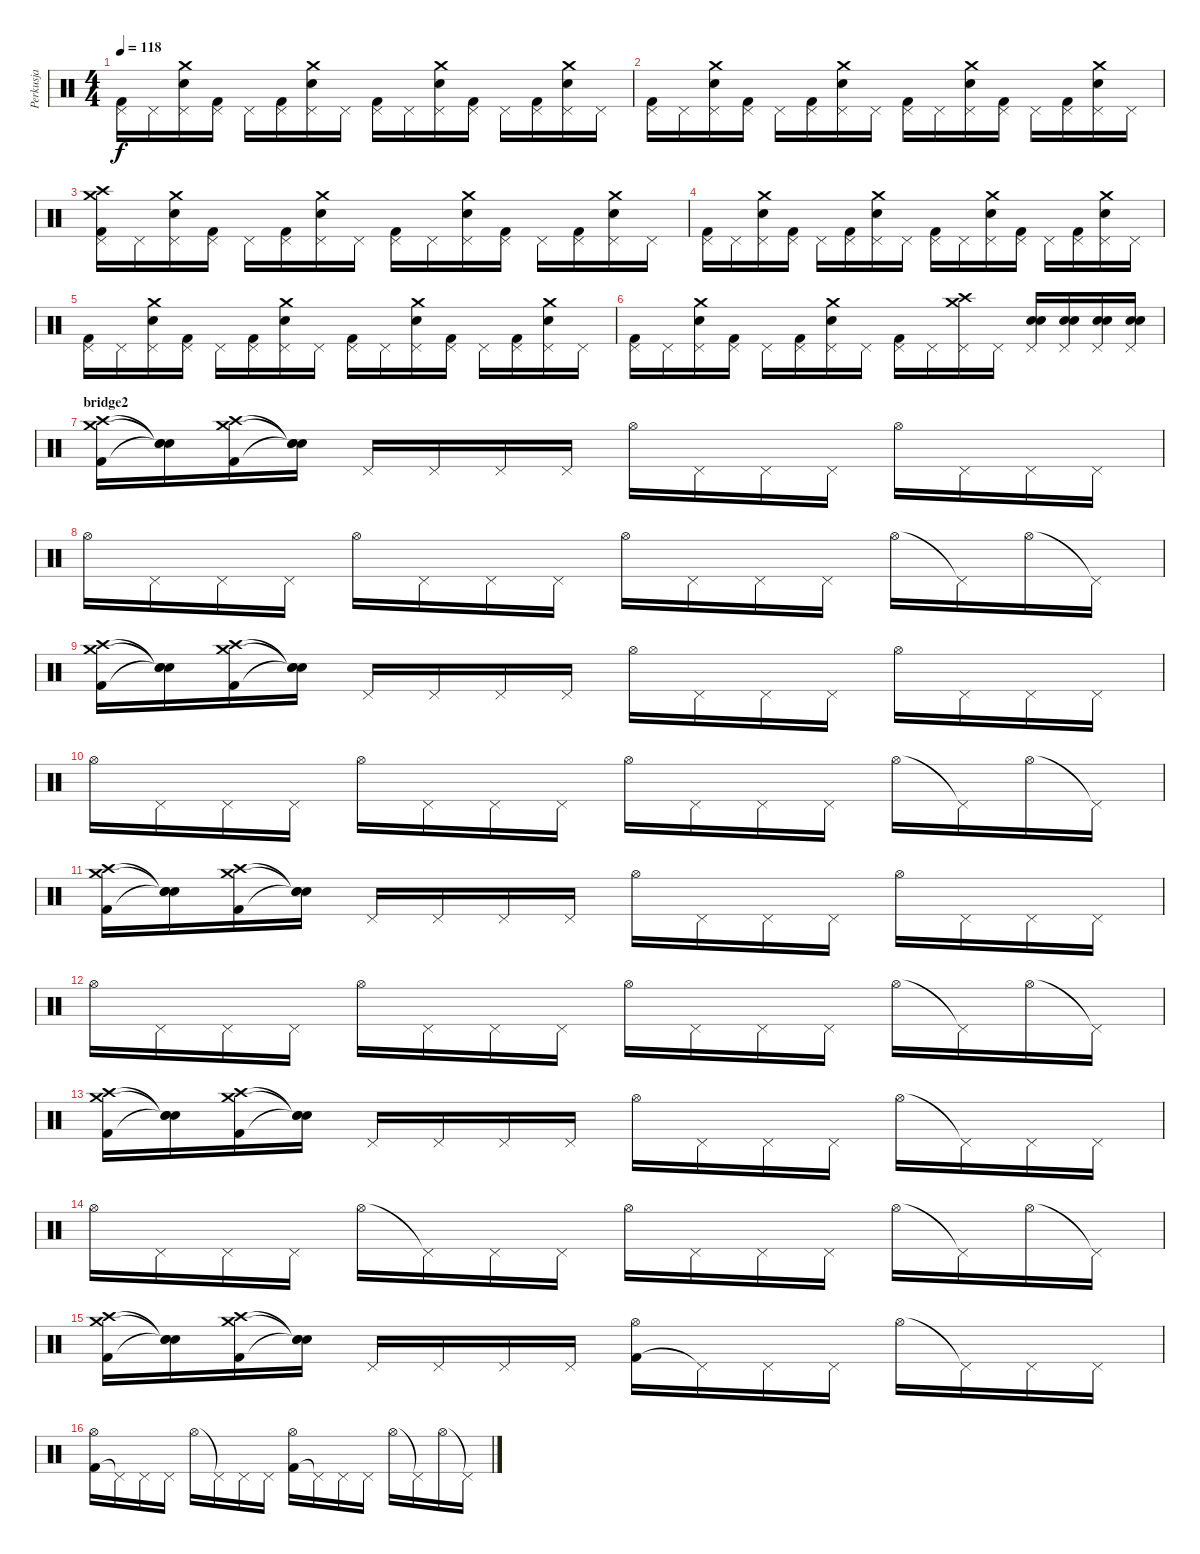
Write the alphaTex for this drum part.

\track ("Perkusja" "Perkusja") {instrument percussion}
\staff {score}
\articulation defaults
\ts (4 4)
\tempo 118
\clef neutral
\ks c
("Kick (hit) 2" "Pedal Hi-Hat (hit)").16{dy f} "Pedal Hi-Hat (hit)".16 ("Electric Snare (hit)" "Crash medium (hit)" "Pedal Hi-Hat (hit)").16 ("Kick (hit) 2" "Pedal Hi-Hat (hit)").16 "Pedal Hi-Hat (hit)".16 ("Kick (hit) 2" "Pedal Hi-Hat (hit)").16 ("Electric Snare (hit)" "Crash medium (hit)" "Pedal Hi-Hat (hit)").16 "Pedal Hi-Hat (hit)".16 ("Kick (hit) 2" "Pedal Hi-Hat (hit)").16 "Pedal Hi-Hat (hit)".16 ("Electric Snare (hit)" "Crash medium (hit)" "Pedal Hi-Hat (hit)").16 ("Kick (hit) 2" "Pedal Hi-Hat (hit)").16 "Pedal Hi-Hat (hit)".16 ("Kick (hit) 2" "Pedal Hi-Hat (hit)").16 ("Electric Snare (hit)" "Crash medium (hit)" "Pedal Hi-Hat (hit)").16 "Pedal Hi-Hat (hit)".16 |
("Kick (hit) 2" "Pedal Hi-Hat (hit)").16 "Pedal Hi-Hat (hit)".16 ("Electric Snare (hit)" "Crash medium (hit)" "Pedal Hi-Hat (hit)").16 ("Kick (hit) 2" "Pedal Hi-Hat (hit)").16 "Pedal Hi-Hat (hit)".16 ("Kick (hit) 2" "Pedal Hi-Hat (hit)").16 ("Electric Snare (hit)" "Crash medium (hit)" "Pedal Hi-Hat (hit)").16 "Pedal Hi-Hat (hit)".16 ("Kick (hit) 2" "Pedal Hi-Hat (hit)").16 "Pedal Hi-Hat (hit)".16 ("Electric Snare (hit)" "Crash medium (hit)" "Pedal Hi-Hat (hit)").16 ("Kick (hit) 2" "Pedal Hi-Hat (hit)").16 "Pedal Hi-Hat (hit)".16 ("Kick (hit) 2" "Pedal Hi-Hat (hit)").16 ("Electric Snare (hit)" "Crash medium (hit)" "Pedal Hi-Hat (hit)").16 "Pedal Hi-Hat (hit)".16 |
("Crash medium (hit)" "Crash high (hit)" "Kick (hit) 2" "Pedal Hi-Hat (hit)").16 "Pedal Hi-Hat (hit)".16 ("Electric Snare (hit)" "Crash medium (hit)" "Pedal Hi-Hat (hit)").16 ("Kick (hit) 2" "Pedal Hi-Hat (hit)").16 "Pedal Hi-Hat (hit)".16 ("Kick (hit) 2" "Pedal Hi-Hat (hit)").16 ("Electric Snare (hit)" "Crash medium (hit)" "Pedal Hi-Hat (hit)").16 "Pedal Hi-Hat (hit)".16 ("Kick (hit) 2" "Pedal Hi-Hat (hit)").16 "Pedal Hi-Hat (hit)".16 ("Electric Snare (hit)" "Crash medium (hit)" "Pedal Hi-Hat (hit)").16 ("Kick (hit) 2" "Pedal Hi-Hat (hit)").16 "Pedal Hi-Hat (hit)".16 ("Kick (hit) 2" "Pedal Hi-Hat (hit)").16 ("Electric Snare (hit)" "Crash medium (hit)" "Pedal Hi-Hat (hit)").16 "Pedal Hi-Hat (hit)".16 |
("Kick (hit) 2" "Pedal Hi-Hat (hit)").16 "Pedal Hi-Hat (hit)".16 ("Electric Snare (hit)" "Crash medium (hit)" "Pedal Hi-Hat (hit)").16 ("Kick (hit) 2" "Pedal Hi-Hat (hit)").16 "Pedal Hi-Hat (hit)".16 ("Kick (hit) 2" "Pedal Hi-Hat (hit)").16 ("Electric Snare (hit)" "Crash medium (hit)" "Pedal Hi-Hat (hit)").16 "Pedal Hi-Hat (hit)".16 ("Kick (hit) 2" "Pedal Hi-Hat (hit)").16 "Pedal Hi-Hat (hit)".16 ("Electric Snare (hit)" "Crash medium (hit)" "Pedal Hi-Hat (hit)").16 ("Kick (hit) 2" "Pedal Hi-Hat (hit)").16 "Pedal Hi-Hat (hit)".16 ("Kick (hit) 2" "Pedal Hi-Hat (hit)").16 ("Electric Snare (hit)" "Crash medium (hit)" "Pedal Hi-Hat (hit)").16 "Pedal Hi-Hat (hit)".16 |
("Kick (hit) 2" "Pedal Hi-Hat (hit)").16 "Pedal Hi-Hat (hit)".16 ("Electric Snare (hit)" "Crash medium (hit)" "Pedal Hi-Hat (hit)").16 ("Kick (hit) 2" "Pedal Hi-Hat (hit)").16 "Pedal Hi-Hat (hit)".16 ("Kick (hit) 2" "Pedal Hi-Hat (hit)").16 ("Electric Snare (hit)" "Crash medium (hit)" "Pedal Hi-Hat (hit)").16 "Pedal Hi-Hat (hit)".16 ("Kick (hit) 2" "Pedal Hi-Hat (hit)").16 "Pedal Hi-Hat (hit)".16 ("Electric Snare (hit)" "Crash medium (hit)" "Pedal Hi-Hat (hit)").16 ("Kick (hit) 2" "Pedal Hi-Hat (hit)").16 "Pedal Hi-Hat (hit)".16 ("Kick (hit) 2" "Pedal Hi-Hat (hit)").16 ("Electric Snare (hit)" "Crash medium (hit)" "Pedal Hi-Hat (hit)").16 "Pedal Hi-Hat (hit)".16 |
("Kick (hit) 2" "Pedal Hi-Hat (hit)").16 "Pedal Hi-Hat (hit)".16 ("Electric Snare (hit)" "Crash medium (hit)" "Pedal Hi-Hat (hit)").16 ("Kick (hit) 2" "Pedal Hi-Hat (hit)").16 "Pedal Hi-Hat (hit)".16 ("Kick (hit) 2" "Pedal Hi-Hat (hit)").16 ("Electric Snare (hit)" "Crash medium (hit)" "Pedal Hi-Hat (hit)").16 "Pedal Hi-Hat (hit)".16 ("Kick (hit) 2" "Pedal Hi-Hat (hit)").16 "Pedal Hi-Hat (hit)".16 ("Crash high (hit)" "Crash medium (hit)" "Pedal Hi-Hat (hit)").16 "Pedal Hi-Hat (hit)".16 ("Electric Snare (hit)" "Snare (hit) 2" "Pedal Hi-Hat (hit)").16 ("Electric Snare (hit)" "Snare (hit) 2" "Pedal Hi-Hat (hit)").16 ("Electric Snare (hit)" "Snare (hit) 2" "Pedal Hi-Hat (hit)").16 ("Electric Snare (hit)" "Snare (hit) 2" "Pedal Hi-Hat (hit)").16 |
\section ("" "bridge2")
("Crash medium (hit)" "Crash high (hit)" "Kick (hit) 2").16 ("Snare (hit)"{t} "Snare (hit)"{t} "Snare (hit)"{t}).16 ("Crash medium (hit)" "Crash high (hit)" "Kick (hit) 2").16 ("Snare (hit)"{t} "Snare (hit)"{t} "Snare (hit)"{t}).16 "Pedal Hi-Hat (hit)".16 "Pedal Hi-Hat (hit)".16 "Pedal Hi-Hat (hit)".16 "Pedal Hi-Hat (hit)".16 "Hi-Hat (open)".16 "Pedal Hi-Hat (hit)".16 "Pedal Hi-Hat (hit)".16 "Pedal Hi-Hat (hit)".16 "Hi-Hat (open)".16 "Pedal Hi-Hat (hit)".16 "Pedal Hi-Hat (hit)".16 "Pedal Hi-Hat (hit)".16 |
"Hi-Hat (open)".16 "Pedal Hi-Hat (hit)".16 "Pedal Hi-Hat (hit)".16 "Pedal Hi-Hat (hit)".16 "Hi-Hat (open)".16 "Pedal Hi-Hat (hit)".16 "Pedal Hi-Hat (hit)".16 "Pedal Hi-Hat (hit)".16 "Hi-Hat (open)".16 "Pedal Hi-Hat (hit)".16 "Pedal Hi-Hat (hit)".16 "Pedal Hi-Hat (hit)".16 "Hi-Hat (open)".16 "Pedal Hi-Hat (hit)"{t}.16 "Hi-Hat (open)".16 "Pedal Hi-Hat (hit)"{t}.16 |
("Crash medium (hit)" "Crash high (hit)" "Kick (hit) 2").16 ("Snare (hit)"{t} "Snare (hit)"{t} "Snare (hit)"{t}).16 ("Crash medium (hit)" "Crash high (hit)" "Kick (hit) 2").16 ("Snare (hit)"{t} "Snare (hit)"{t} "Snare (hit)"{t}).16 "Pedal Hi-Hat (hit)".16 "Pedal Hi-Hat (hit)".16 "Pedal Hi-Hat (hit)".16 "Pedal Hi-Hat (hit)".16 "Hi-Hat (open)".16 "Pedal Hi-Hat (hit)".16 "Pedal Hi-Hat (hit)".16 "Pedal Hi-Hat (hit)".16 "Hi-Hat (open)".16 "Pedal Hi-Hat (hit)".16 "Pedal Hi-Hat (hit)".16 "Pedal Hi-Hat (hit)".16 |
"Hi-Hat (open)".16 "Pedal Hi-Hat (hit)".16 "Pedal Hi-Hat (hit)".16 "Pedal Hi-Hat (hit)".16 "Hi-Hat (open)".16 "Pedal Hi-Hat (hit)".16 "Pedal Hi-Hat (hit)".16 "Pedal Hi-Hat (hit)".16 "Hi-Hat (open)".16 "Pedal Hi-Hat (hit)".16 "Pedal Hi-Hat (hit)".16 "Pedal Hi-Hat (hit)".16 "Hi-Hat (open)".16 "Pedal Hi-Hat (hit)"{t}.16 "Hi-Hat (open)".16 "Pedal Hi-Hat (hit)"{t}.16 |
("Crash medium (hit)" "Crash high (hit)" "Kick (hit) 2").16 ("Snare (hit)"{t} "Snare (hit)"{t} "Snare (hit)"{t}).16 ("Crash medium (hit)" "Crash high (hit)" "Kick (hit) 2").16 ("Snare (hit)"{t} "Snare (hit)"{t} "Snare (hit)"{t}).16 "Pedal Hi-Hat (hit)".16 "Pedal Hi-Hat (hit)".16 "Pedal Hi-Hat (hit)".16 "Pedal Hi-Hat (hit)".16 "Hi-Hat (open)".16 "Pedal Hi-Hat (hit)".16 "Pedal Hi-Hat (hit)".16 "Pedal Hi-Hat (hit)".16 "Hi-Hat (open)".16 "Pedal Hi-Hat (hit)".16 "Pedal Hi-Hat (hit)".16 "Pedal Hi-Hat (hit)".16 |
"Hi-Hat (open)".16 "Pedal Hi-Hat (hit)".16 "Pedal Hi-Hat (hit)".16 "Pedal Hi-Hat (hit)".16 "Hi-Hat (open)".16 "Pedal Hi-Hat (hit)".16 "Pedal Hi-Hat (hit)".16 "Pedal Hi-Hat (hit)".16 "Hi-Hat (open)".16 "Pedal Hi-Hat (hit)".16 "Pedal Hi-Hat (hit)".16 "Pedal Hi-Hat (hit)".16 "Hi-Hat (open)".16 "Pedal Hi-Hat (hit)"{t}.16 "Hi-Hat (open)".16 "Pedal Hi-Hat (hit)"{t}.16 |
("Crash medium (hit)" "Crash high (hit)" "Kick (hit) 2").16 ("Snare (hit)"{t} "Snare (hit)"{t} "Snare (hit)"{t}).16 ("Crash medium (hit)" "Crash high (hit)" "Kick (hit) 2").16 ("Snare (hit)"{t} "Snare (hit)"{t} "Snare (hit)"{t}).16 "Pedal Hi-Hat (hit)".16 "Pedal Hi-Hat (hit)".16 "Pedal Hi-Hat (hit)".16 "Pedal Hi-Hat (hit)".16 "Hi-Hat (open)".16 "Pedal Hi-Hat (hit)".16 "Pedal Hi-Hat (hit)".16 "Pedal Hi-Hat (hit)".16 "Hi-Hat (open)".16 "Pedal Hi-Hat (hit)"{t}.16 "Pedal Hi-Hat (hit)".16 "Pedal Hi-Hat (hit)".16 |
"Hi-Hat (open)".16 "Pedal Hi-Hat (hit)".16 "Pedal Hi-Hat (hit)".16 "Pedal Hi-Hat (hit)".16 "Hi-Hat (open)".16 "Pedal Hi-Hat (hit)"{t}.16 "Pedal Hi-Hat (hit)".16 "Pedal Hi-Hat (hit)".16 "Hi-Hat (open)".16 "Pedal Hi-Hat (hit)".16 "Pedal Hi-Hat (hit)".16 "Pedal Hi-Hat (hit)".16 "Hi-Hat (open)".16 "Pedal Hi-Hat (hit)"{t}.16 "Hi-Hat (open)".16 "Pedal Hi-Hat (hit)"{t}.16 |
("Crash medium (hit)" "Crash high (hit)" "Kick (hit) 2").16 ("Snare (hit)"{t} "Snare (hit)"{t} "Snare (hit)"{t}).16 ("Crash medium (hit)" "Crash high (hit)" "Kick (hit) 2").16 ("Snare (hit)"{t} "Snare (hit)"{t} "Snare (hit)"{t}).16 "Pedal Hi-Hat (hit)".16 "Pedal Hi-Hat (hit)".16 "Pedal Hi-Hat (hit)".16 "Pedal Hi-Hat (hit)".16 ("Kick (hit) 2" "Hi-Hat (open)").16 "Pedal Hi-Hat (hit)"{t}.16 "Pedal Hi-Hat (hit)".16 "Pedal Hi-Hat (hit)".16 "Hi-Hat (open)".16 "Pedal Hi-Hat (hit)"{t}.16 "Pedal Hi-Hat (hit)".16 "Pedal Hi-Hat (hit)".16 |
("Kick (hit) 2" "Hi-Hat (open)").16 "Pedal Hi-Hat (hit)"{t}.16 "Pedal Hi-Hat (hit)".16 "Pedal Hi-Hat (hit)".16 "Hi-Hat (open)".16 "Pedal Hi-Hat (hit)"{t}.16 "Pedal Hi-Hat (hit)".16 "Pedal Hi-Hat (hit)".16 ("Kick (hit) 2" "Hi-Hat (open)").16 "Pedal Hi-Hat (hit)"{t}.16 "Pedal Hi-Hat (hit)".16 "Pedal Hi-Hat (hit)".16 "Hi-Hat (open)".16 "Pedal Hi-Hat (hit)"{t}.16 "Hi-Hat (open)".16 "Pedal Hi-Hat (hit)"{t}.16
